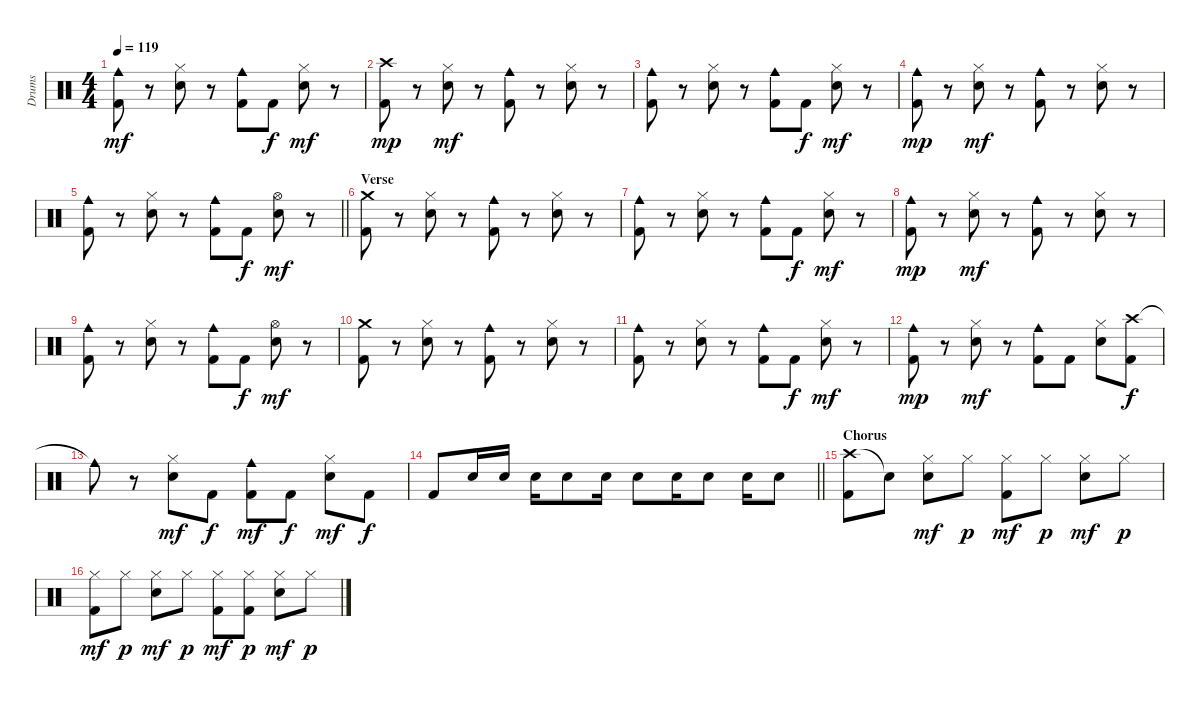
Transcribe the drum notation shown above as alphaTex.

\track ("Drums" "Drums") {instrument percussion}
\staff {score}
\articulation defaults
\ts (4 4)
\tempo 119
\clef neutral
\ks c
("Cowbell medium (hit)" "Kick (hit) 2").8{dy mf} r.8 ("Hi-Hat (closed)" "Electric Snare (hit)").8 r.8 ("Cowbell medium (hit)" "Kick (hit) 2").8 "Kick (hit) 2".8{dy f} ("Hi-Hat (closed)" "Electric Snare (hit)").8{dy mf} r.8 |
("Crash high (hit)" "Kick (hit) 2").8{dy mp} r.8 ("Hi-Hat (closed)" "Electric Snare (hit)").8{dy mf} r.8 ("Cowbell medium (hit)" "Kick (hit) 2").8 r.8 ("Hi-Hat (closed)" "Electric Snare (hit)").8 r.8 |
("Cowbell medium (hit)" "Kick (hit) 2").8 r.8 ("Hi-Hat (closed)" "Electric Snare (hit)").8 r.8 ("Cowbell medium (hit)" "Kick (hit) 2").8 "Kick (hit) 2".8{dy f} ("Hi-Hat (closed)" "Electric Snare (hit)").8{dy mf} r.8 |
("Cowbell medium (hit)" "Kick (hit) 2").8{dy mp} r.8 ("Hi-Hat (closed)" "Electric Snare (hit)").8{dy mf} r.8 ("Cowbell medium (hit)" "Kick (hit) 2").8 r.8 ("Hi-Hat (closed)" "Electric Snare (hit)").8 r.8 |
\barLineRight lightlight
("Cowbell medium (hit)" "Kick (hit) 2").8 r.8 ("Hi-Hat (closed)" "Electric Snare (hit)").8 r.8 ("Cowbell medium (hit)" "Kick (hit) 2").8 "Kick (hit) 2".8{dy f} ("Hi-Hat (open)" "Electric Snare (hit)").8{dy mf} r.8 |
\section ("" "Verse")
("Crash medium (hit)" "Kick (hit) 2").8 r.8 ("Hi-Hat (closed)" "Electric Snare (hit)").8 r.8 ("Cowbell medium (hit)" "Kick (hit) 2").8 r.8 ("Hi-Hat (closed)" "Electric Snare (hit)").8 r.8 |
("Cowbell medium (hit)" "Kick (hit) 2").8 r.8 ("Hi-Hat (closed)" "Electric Snare (hit)").8 r.8 ("Cowbell medium (hit)" "Kick (hit) 2").8 "Kick (hit) 2".8{dy f} ("Hi-Hat (closed)" "Electric Snare (hit)").8{dy mf} r.8 |
("Cowbell medium (hit)" "Kick (hit) 2").8{dy mp} r.8 ("Hi-Hat (closed)" "Electric Snare (hit)").8{dy mf} r.8 ("Cowbell medium (hit)" "Kick (hit) 2").8 r.8 ("Hi-Hat (closed)" "Electric Snare (hit)").8 r.8 |
("Cowbell medium (hit)" "Kick (hit) 2").8 r.8 ("Hi-Hat (closed)" "Electric Snare (hit)").8 r.8 ("Cowbell medium (hit)" "Kick (hit) 2").8 "Kick (hit) 2".8{dy f} ("Hi-Hat (open)" "Electric Snare (hit)").8{dy mf} r.8 |
("Crash medium (hit)" "Kick (hit) 2").8 r.8 ("Hi-Hat (closed)" "Electric Snare (hit)").8 r.8 ("Cowbell medium (hit)" "Kick (hit) 2").8 r.8 ("Hi-Hat (closed)" "Electric Snare (hit)").8 r.8 |
("Cowbell medium (hit)" "Kick (hit) 2").8 r.8 ("Hi-Hat (closed)" "Electric Snare (hit)").8 r.8 ("Cowbell medium (hit)" "Kick (hit) 2").8 "Kick (hit) 2".8{dy f} ("Hi-Hat (closed)" "Electric Snare (hit)").8{dy mf} r.8 |
("Cowbell medium (hit)" "Kick (hit) 2").8{dy mp} r.8 ("Hi-Hat (closed)" "Electric Snare (hit)").8{dy mf} r.8 ("Cowbell medium (hit)" "Kick (hit) 2").8 "Kick (hit) 2".8 ("Hi-Hat (closed)" "Electric Snare (hit)").8 ("Crash high (hit)" "Kick (hit) 2").8{dy f} |
"Cowbell medium (hit)"{t}.8 r.8 ("Hi-Hat (closed)" "Electric Snare (hit)").8{dy mf} "Kick (hit) 2".8{dy f} ("Cowbell medium (hit)" "Kick (hit) 2").8{dy mf} "Kick (hit) 2".8{dy f} ("Hi-Hat (closed)" "Electric Snare (hit)").8{dy mf} "Kick (hit) 2".8{dy f} |
\barLineRight lightlight "Kick (hit) 2".8 "Electric Snare (hit)".16 "Electric Snare (hit)".16 "Electric Snare (hit)".16 "Electric Snare (hit)".8 "Electric Snare (hit)".16 "Electric Snare (hit)".8 "Electric Snare (hit)".16 "Electric Snare (hit)".8 "Electric Snare (hit)".16 "Electric Snare (hit)".8
|
\section ("" "Chorus")
("Crash high (hit)" "Kick (hit) 2").8 "Snare (hit)"{t}.8 ("Hi-Hat (closed)" "Electric Snare (hit)").8{dy mf} "Hi-Hat (closed)".8{dy p} ("Hi-Hat (closed)" "Kick (hit) 2").8{dy mf} "Hi-Hat (closed)".8{dy p} ("Hi-Hat (closed)" "Electric Snare (hit)").8{dy mf} "Hi-Hat (closed)".8{dy p} |
("Hi-Hat (closed)" "Kick (hit) 2").8{dy mf} "Hi-Hat (closed)".8{dy p} ("Hi-Hat (closed)" "Electric Snare (hit)").8{dy mf} "Hi-Hat (closed)".8{dy p} ("Hi-Hat (closed)" "Kick (hit) 2").8{dy mf} ("Hi-Hat (closed)" "Kick (hit) 2").8{dy p} ("Hi-Hat (closed)" "Electric Snare (hit)").8{dy mf} "Hi-Hat (closed)".8{dy p}
